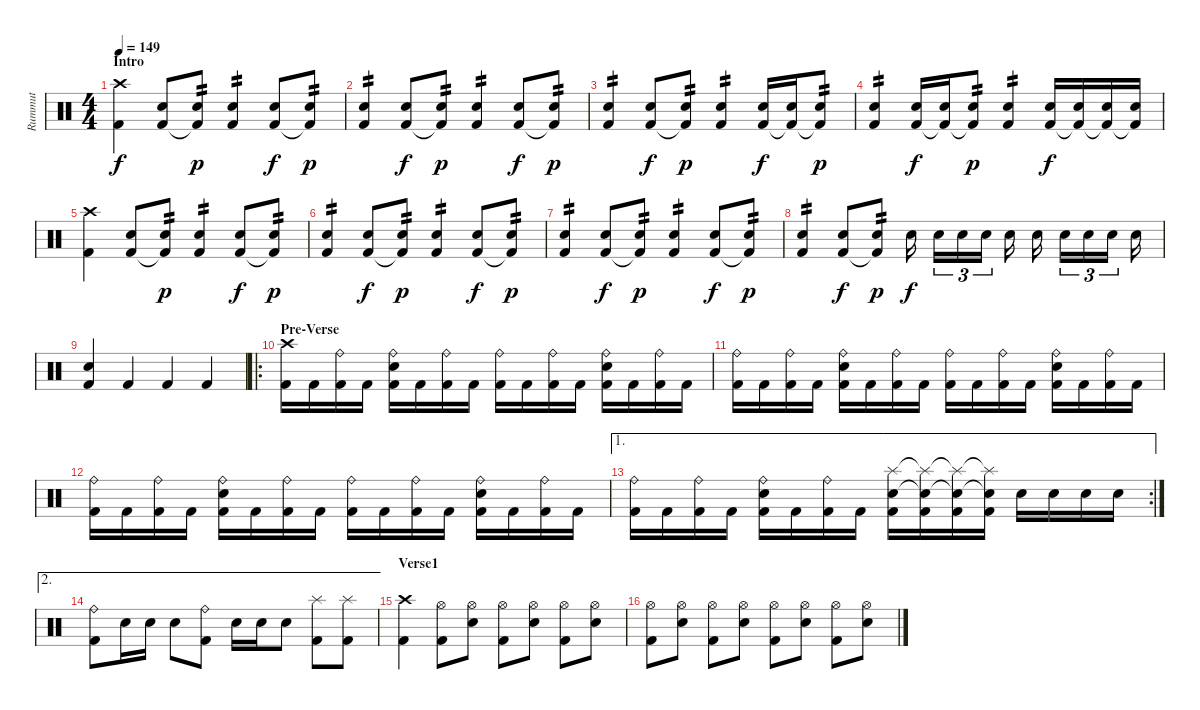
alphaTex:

\track ("Rummut" "Rummut") {instrument percussion}
\staff {score}
\articulation defaults
\ts (4 4)
\section ("" "Intro")
\tempo 149
\clef neutral
\ks c
("Crash high (hit)" "Kick (hit) 2").4{dy f} ("Electric Snare (hit)" "Kick (hit) 2").8 ("Electric Snare (hit)" "Kick (hit) 2"{t}).8{tp 2 dy p} ("Electric Snare (hit)" "Kick (hit) 2").4{tp 2} ("Electric Snare (hit)" "Kick (hit) 2").8{dy f} ("Electric Snare (hit)" "Kick (hit) 2"{t}).8{tp 2 dy p} |
("Electric Snare (hit)" "Kick (hit) 2").4{tp 2} ("Electric Snare (hit)" "Kick (hit) 2").8{dy f} ("Electric Snare (hit)" "Kick (hit) 2"{t}).8{tp 2 dy p} ("Electric Snare (hit)" "Kick (hit) 2").4{tp 2} ("Electric Snare (hit)" "Kick (hit) 2").8{dy f} ("Electric Snare (hit)" "Kick (hit) 2"{t}).8{tp 2 dy p} |
("Electric Snare (hit)" "Kick (hit) 2").4{tp 2} ("Electric Snare (hit)" "Kick (hit) 2").8{dy f} ("Electric Snare (hit)" "Kick (hit) 2"{t}).8{tp 2 dy p} ("Electric Snare (hit)" "Kick (hit) 2").4{tp 2} ("Electric Snare (hit)" "Kick (hit) 2").16{dy f} ("Electric Snare (hit)" "Kick (hit) 2"{t}).16 ("Electric Snare (hit)" "Kick (hit) 2"{t}).8{tp 2 dy p} |
("Electric Snare (hit)" "Kick (hit) 2").4{tp 2} ("Electric Snare (hit)" "Kick (hit) 2").16{dy f} ("Electric Snare (hit)" "Kick (hit) 2"{t}).16 ("Electric Snare (hit)" "Kick (hit) 2"{t}).8{tp 2 dy p} ("Electric Snare (hit)" "Kick (hit) 2").4{tp 2} ("Electric Snare (hit)" "Kick (hit) 2").16{dy f} ("Electric Snare (hit)" "Kick (hit) 2"{t}).16 ("Electric Snare (hit)" "Kick (hit) 2"{t}).16 ("Electric Snare (hit)" "Kick (hit) 2"{t}).16 |
("Crash high (hit)" "Kick (hit) 2").4 ("Electric Snare (hit)" "Kick (hit) 2").8 ("Electric Snare (hit)" "Kick (hit) 2"{t}).8{tp 2 dy p} ("Electric Snare (hit)" "Kick (hit) 2").4{tp 2} ("Electric Snare (hit)" "Kick (hit) 2").8{dy f} ("Electric Snare (hit)" "Kick (hit) 2"{t}).8{tp 2 dy p} |
("Electric Snare (hit)" "Kick (hit) 2").4{tp 2} ("Electric Snare (hit)" "Kick (hit) 2").8{dy f} ("Electric Snare (hit)" "Kick (hit) 2"{t}).8{tp 2 dy p} ("Electric Snare (hit)" "Kick (hit) 2").4{tp 2} ("Electric Snare (hit)" "Kick (hit) 2").8{dy f} ("Electric Snare (hit)" "Kick (hit) 2"{t}).8{tp 2 dy p} |
("Electric Snare (hit)" "Kick (hit) 2").4{tp 2} ("Electric Snare (hit)" "Kick (hit) 2").8{dy f} ("Electric Snare (hit)" "Kick (hit) 2"{t}).8{tp 2 dy p} ("Electric Snare (hit)" "Kick (hit) 2").4{tp 2} ("Electric Snare (hit)" "Kick (hit) 2").8{dy f} ("Electric Snare (hit)" "Kick (hit) 2"{t}).8{tp 2 dy p} |
("Electric Snare (hit)" "Kick (hit) 2").4{tp 2} ("Electric Snare (hit)" "Kick (hit) 2").8{dy f} ("Electric Snare (hit)" "Kick (hit) 2"{t}).8{tp 2 dy p} "Electric Snare (hit)".16{dy f} "Electric Snare (hit)".16{tu (3 2)} "Electric Snare (hit)".16{tu (3 2)} "Electric Snare (hit)".16{tu (3 2)} "Electric Snare (hit)".16 "Electric Snare (hit)".16 "Electric Snare (hit)".16{tu (3 2)} "Electric Snare (hit)".16{tu (3 2)} "Electric Snare (hit)".16{tu (3 2)} "Electric Snare (hit)".16 |
("Electric Snare (hit)" "Kick (hit) 2").4 "Kick (hit) 2".4 "Kick (hit) 2".4 "Kick (hit) 2".4 |
\ro
\section ("" "Pre-Verse")
("Crash high (hit)" "Kick (hit) 2").16 "Kick (hit) 2".16 ("Ride (bell)" "Kick (hit) 2").16 "Kick (hit) 2".16 ("Ride (bell)" "Electric Snare (hit)" "Kick (hit) 2").16 "Kick (hit) 2".16 ("Ride (bell)" "Kick (hit) 2").16 "Kick (hit) 2".16 ("Ride (bell)" "Kick (hit) 2").16 "Kick (hit) 2".16 ("Ride (bell)" "Kick (hit) 2").16 "Kick (hit) 2".16 ("Ride (bell)" "Electric Snare (hit)" "Kick (hit) 2").16 "Kick (hit) 2".16 ("Ride (bell)" "Kick (hit) 2").16 "Kick (hit) 2".16 |
("Ride (bell)" "Kick (hit) 2").16 "Kick (hit) 2".16 ("Ride (bell)" "Kick (hit) 2").16 "Kick (hit) 2".16 ("Ride (bell)" "Electric Snare (hit)" "Kick (hit) 2").16 "Kick (hit) 2".16 ("Ride (bell)" "Kick (hit) 2").16 "Kick (hit) 2".16 ("Ride (bell)" "Kick (hit) 2").16 "Kick (hit) 2".16 ("Ride (bell)" "Kick (hit) 2").16 "Kick (hit) 2".16 ("Ride (bell)" "Electric Snare (hit)" "Kick (hit) 2").16 "Kick (hit) 2".16 ("Ride (bell)" "Kick (hit) 2").16 "Kick (hit) 2".16 |
("Ride (bell)" "Kick (hit) 2").16 "Kick (hit) 2".16 ("Ride (bell)" "Kick (hit) 2").16 "Kick (hit) 2".16 ("Ride (bell)" "Electric Snare (hit)" "Kick (hit) 2").16 "Kick (hit) 2".16 ("Ride (bell)" "Kick (hit) 2").16 "Kick (hit) 2".16 ("Ride (bell)" "Kick (hit) 2").16 "Kick (hit) 2".16 ("Ride (bell)" "Kick (hit) 2").16 "Kick (hit) 2".16 ("Ride (bell)" "Electric Snare (hit)" "Kick (hit) 2").16 "Kick (hit) 2".16 ("Ride (bell)" "Kick (hit) 2").16 "Kick (hit) 2".16 |
\ae 1
\rc 2
("Ride (bell)" "Kick (hit) 2").16 "Kick (hit) 2".16 ("Ride (bell)" "Kick (hit) 2").16 "Kick (hit) 2".16 ("Ride (bell)" "Electric Snare (hit)" "Kick (hit) 2").16 "Kick (hit) 2".16 ("Ride (bell)" "Kick (hit) 2").16 "Kick (hit) 2".16 ("Splash (hit)" "Electric Snare (hit)" "Kick (hit) 2").16 ("Splash (hit)"{t} "Electric Snare (hit)"{t} "Kick (hit) 2").16 ("Splash (hit)"{t} "Electric Snare (hit)"{t} "Kick (hit) 2").16 ("Splash (hit)"{t} "Electric Snare (hit)"{t} "Kick (hit) 2").16 "Electric Snare (hit)".16 "Electric Snare (hit)".16 "Electric Snare (hit)".16 "Electric Snare (hit)".16 |
\ae 2
("Ride (bell)" "Kick (hit) 2").8 "Electric Snare (hit)".16 "Electric Snare (hit)".16 "Electric Snare (hit)".8 ("Ride (bell)" "Kick (hit) 2").8 "Electric Snare (hit)".16 "Electric Snare (hit)".16 "Electric Snare (hit)".8 ("Splash (hit)" "Kick (hit) 2").8 ("Splash (hit)" "Kick (hit) 2").8 |
\section ("" "Verse1")
("Crash high (hit)" "Kick (hit) 2").4 ("Hi-Hat (open)" "Kick (hit) 2").8 ("Hi-Hat (open)" "Electric Snare (hit)").8 ("Hi-Hat (open)" "Kick (hit) 2").8 ("Hi-Hat (open)" "Electric Snare (hit)").8 ("Hi-Hat (open)" "Kick (hit) 2").8 ("Hi-Hat (open)" "Electric Snare (hit)").8 |
("Hi-Hat (open)" "Kick (hit) 2").8 ("Hi-Hat (open)" "Electric Snare (hit)").8 ("Hi-Hat (open)" "Kick (hit) 2").8 ("Hi-Hat (open)" "Electric Snare (hit)").8 ("Hi-Hat (open)" "Kick (hit) 2").8 ("Hi-Hat (open)" "Electric Snare (hit)").8 ("Hi-Hat (open)" "Kick (hit) 2").8 ("Hi-Hat (open)" "Electric Snare (hit)").8
